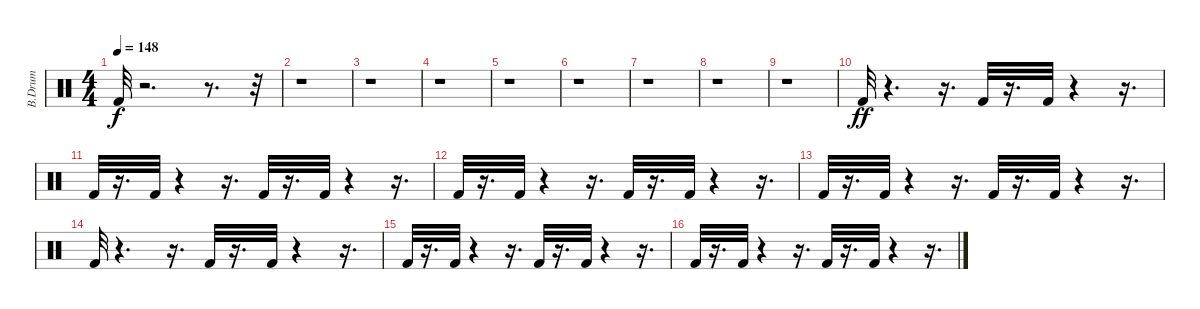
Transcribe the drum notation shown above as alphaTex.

\track ("B.Drum                              " "B.Drum    ") {instrument percussion}
\staff {score}
\articulation defaults
\ts (4 4)
\tempo 148
\clef neutral
\ks c "Kick (hit) 2".32{dy f}
r.2{d} r.8{d} r.32 |
r.1 |
r.1 |
r.1 |
r.1 |
r.1 |
r.1 |
r.1 |
r.1 |
"Kick (hit) 2".32{dy ff} r.4{d} r.16{d} "Kick (hit) 2".32 r.16{d} "Kick (hit) 2".32 r.4 r.16{d} |
"Kick (hit) 2".32 r.16{d} "Kick (hit) 2".32 r.4 r.16{d} "Kick (hit) 2".32 r.16{d} "Kick (hit) 2".32 r.4 r.16{d} |
"Kick (hit) 2".32 r.16{d} "Kick (hit) 2".32 r.4 r.16{d} "Kick (hit) 2".32 r.16{d} "Kick (hit) 2".32 r.4 r.16{d} |
"Kick (hit) 2".32 r.16{d} "Kick (hit) 2".32 r.4 r.16{d} "Kick (hit) 2".32 r.16{d} "Kick (hit) 2".32 r.4 r.16{d} |
"Kick (hit) 2".32 r.4{d} r.16{d} "Kick (hit) 2".32 r.16{d} "Kick (hit) 2".32 r.4 r.16{d} |
"Kick (hit) 2".32 r.16{d} "Kick (hit) 2".32 r.4 r.16{d} "Kick (hit) 2".32 r.16{d} "Kick (hit) 2".32 r.4 r.16{d} |
"Kick (hit) 2".32 r.16{d} "Kick (hit) 2".32 r.4 r.16{d} "Kick (hit) 2".32 r.16{d} "Kick (hit) 2".32 r.4 r.16{d}
